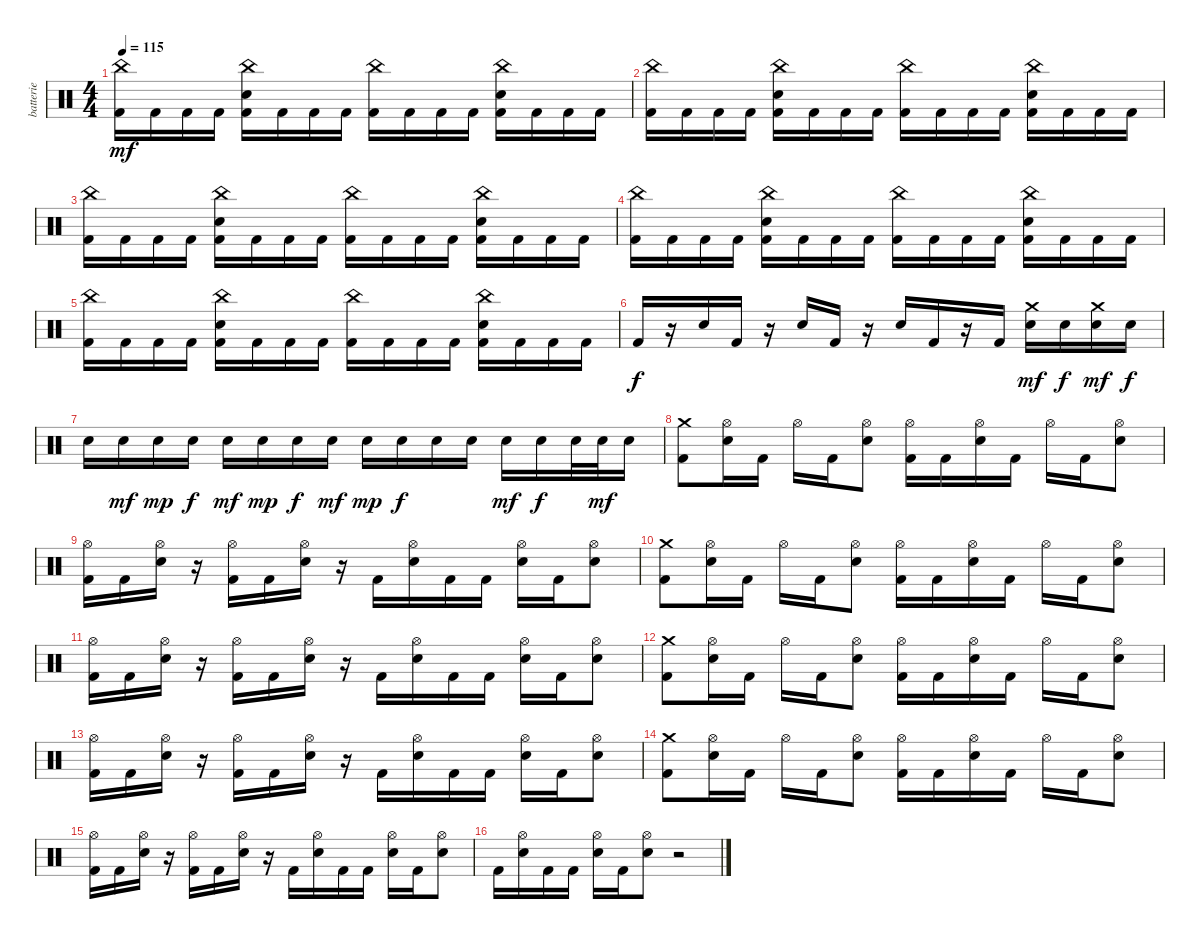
\track ("batterie" "batterie") {instrument percussion}
\staff {score}
\articulation defaults
\ts (4 4)
\tempo 115
\clef neutral
\ks c
("China (hit)" "Kick (hit) 2").16{dy mf} "Kick (hit) 2".16 "Kick (hit) 2".16 "Kick (hit) 2".16 ("China (hit)" "Electric Snare (hit)" "Kick (hit) 2").16 "Kick (hit) 2".16 "Kick (hit) 2".16 "Kick (hit) 2".16 ("China (hit)" "Kick (hit) 2").16 "Kick (hit) 2".16 "Kick (hit) 2".16 "Kick (hit) 2".16 ("China (hit)" "Electric Snare (hit)" "Kick (hit) 2").16 "Kick (hit) 2".16 "Kick (hit) 2".16 "Kick (hit) 2".16 |
("China (hit)" "Kick (hit) 2").16 "Kick (hit) 2".16 "Kick (hit) 2".16 "Kick (hit) 2".16 ("China (hit)" "Electric Snare (hit)" "Kick (hit) 2").16 "Kick (hit) 2".16 "Kick (hit) 2".16 "Kick (hit) 2".16 ("China (hit)" "Kick (hit) 2").16 "Kick (hit) 2".16 "Kick (hit) 2".16 "Kick (hit) 2".16 ("China (hit)" "Electric Snare (hit)" "Kick (hit) 2").16 "Kick (hit) 2".16 "Kick (hit) 2".16 "Kick (hit) 2".16 |
("China (hit)" "Kick (hit) 2").16 "Kick (hit) 2".16 "Kick (hit) 2".16 "Kick (hit) 2".16 ("China (hit)" "Electric Snare (hit)" "Kick (hit) 2").16 "Kick (hit) 2".16 "Kick (hit) 2".16 "Kick (hit) 2".16 ("China (hit)" "Kick (hit) 2").16 "Kick (hit) 2".16 "Kick (hit) 2".16 "Kick (hit) 2".16 ("China (hit)" "Electric Snare (hit)" "Kick (hit) 2").16 "Kick (hit) 2".16 "Kick (hit) 2".16 "Kick (hit) 2".16 |
("China (hit)" "Kick (hit) 2").16 "Kick (hit) 2".16 "Kick (hit) 2".16 "Kick (hit) 2".16 ("China (hit)" "Electric Snare (hit)" "Kick (hit) 2").16 "Kick (hit) 2".16 "Kick (hit) 2".16 "Kick (hit) 2".16 ("China (hit)" "Kick (hit) 2").16 "Kick (hit) 2".16 "Kick (hit) 2".16 "Kick (hit) 2".16 ("China (hit)" "Electric Snare (hit)" "Kick (hit) 2").16 "Kick (hit) 2".16 "Kick (hit) 2".16 "Kick (hit) 2".16 |
("China (hit)" "Kick (hit) 2").16 "Kick (hit) 2".16 "Kick (hit) 2".16 "Kick (hit) 2".16 ("China (hit)" "Electric Snare (hit)" "Kick (hit) 2").16 "Kick (hit) 2".16 "Kick (hit) 2".16 "Kick (hit) 2".16 ("China (hit)" "Kick (hit) 2").16 "Kick (hit) 2".16 "Kick (hit) 2".16 "Kick (hit) 2".16 ("China (hit)" "Electric Snare (hit)" "Kick (hit) 2").16 "Kick (hit) 2".16 "Kick (hit) 2".16 "Kick (hit) 2".16 |
"Kick (hit) 2".16{dy f} r.16 "Electric Snare (hit)".16 "Kick (hit) 2".16 r.16 "Electric Snare (hit)".16 "Kick (hit) 2".16 r.16 "Electric Snare (hit)".16 "Kick (hit) 2".16 r.16 "Kick (hit) 2".16 ("Crash medium (hit)" "Electric Snare (hit)").16{dy mf} "Electric Snare (hit)".16{dy f} ("Crash medium (hit)" "Electric Snare (hit)").16{dy mf} "Electric Snare (hit)".16{dy f} |
"Electric Snare (hit)".16 "Electric Snare (hit)".16{dy mf} "Electric Snare (hit)".16{dy mp} "Electric Snare (hit)".16{dy f} "Electric Snare (hit)".16{dy mf} "Electric Snare (hit)".16{dy mp} "Electric Snare (hit)".16{dy f} "Electric Snare (hit)".16{dy mf} "Electric Snare (hit)".16{dy mp} "Electric Snare (hit)".16{dy f} "Electric Snare (hit)".16 "Electric Snare (hit)".16 "Electric Snare (hit)".16{dy mf} "Electric Snare (hit)".16{dy f} "Electric Snare (hit)".32 "Electric Snare (hit)".32{dy mf} "Electric Snare (hit)".16 |
("Crash medium (hit)" "Kick (hit) 2").8 ("Hi-Hat (open)" "Electric Snare (hit)").16 "Kick (hit) 2".16 "Hi-Hat (open)".16 "Kick (hit) 2".16 ("Hi-Hat (open)" "Electric Snare (hit)").8 ("Hi-Hat (open)" "Kick (hit) 2").16 "Kick (hit) 2".16 ("Hi-Hat (open)" "Electric Snare (hit)").16 "Kick (hit) 2".16 "Hi-Hat (open)".16 "Kick (hit) 2".16 ("Hi-Hat (open)" "Electric Snare (hit)").8 |
("Hi-Hat (open)" "Kick (hit) 2").16 "Kick (hit) 2".16 ("Hi-Hat (open)" "Electric Snare (hit)").16 r.16 ("Hi-Hat (open)" "Kick (hit) 2").16 "Kick (hit) 2".16 ("Hi-Hat (open)" "Electric Snare (hit)").16 r.16 "Kick (hit) 2".16 ("Hi-Hat (open)" "Electric Snare (hit)").16 "Kick (hit) 2".16 "Kick (hit) 2".16 ("Hi-Hat (open)" "Electric Snare (hit)").16 "Kick (hit) 2".16 ("Hi-Hat (open)" "Electric Snare (hit)").8 |
("Crash medium (hit)" "Kick (hit) 2").8 ("Hi-Hat (open)" "Electric Snare (hit)").16 "Kick (hit) 2".16 "Hi-Hat (open)".16 "Kick (hit) 2".16 ("Hi-Hat (open)" "Electric Snare (hit)").8 ("Hi-Hat (open)" "Kick (hit) 2").16 "Kick (hit) 2".16 ("Hi-Hat (open)" "Electric Snare (hit)").16 "Kick (hit) 2".16 "Hi-Hat (open)".16 "Kick (hit) 2".16 ("Hi-Hat (open)" "Electric Snare (hit)").8 |
("Hi-Hat (open)" "Kick (hit) 2").16 "Kick (hit) 2".16 ("Hi-Hat (open)" "Electric Snare (hit)").16 r.16 ("Hi-Hat (open)" "Kick (hit) 2").16 "Kick (hit) 2".16 ("Hi-Hat (open)" "Electric Snare (hit)").16 r.16 "Kick (hit) 2".16 ("Hi-Hat (open)" "Electric Snare (hit)").16 "Kick (hit) 2".16 "Kick (hit) 2".16 ("Hi-Hat (open)" "Electric Snare (hit)").16 "Kick (hit) 2".16 ("Hi-Hat (open)" "Electric Snare (hit)").8 |
("Crash medium (hit)" "Kick (hit) 2").8 ("Hi-Hat (open)" "Electric Snare (hit)").16 "Kick (hit) 2".16 "Hi-Hat (open)".16 "Kick (hit) 2".16 ("Hi-Hat (open)" "Electric Snare (hit)").8 ("Hi-Hat (open)" "Kick (hit) 2").16 "Kick (hit) 2".16 ("Hi-Hat (open)" "Electric Snare (hit)").16 "Kick (hit) 2".16 "Hi-Hat (open)".16 "Kick (hit) 2".16 ("Hi-Hat (open)" "Electric Snare (hit)").8 |
("Hi-Hat (open)" "Kick (hit) 2").16 "Kick (hit) 2".16 ("Hi-Hat (open)" "Electric Snare (hit)").16 r.16 ("Hi-Hat (open)" "Kick (hit) 2").16 "Kick (hit) 2".16 ("Hi-Hat (open)" "Electric Snare (hit)").16 r.16 "Kick (hit) 2".16 ("Hi-Hat (open)" "Electric Snare (hit)").16 "Kick (hit) 2".16 "Kick (hit) 2".16 ("Hi-Hat (open)" "Electric Snare (hit)").16 "Kick (hit) 2".16 ("Hi-Hat (open)" "Electric Snare (hit)").8 |
("Crash medium (hit)" "Kick (hit) 2").8 ("Hi-Hat (open)" "Electric Snare (hit)").16 "Kick (hit) 2".16 "Hi-Hat (open)".16 "Kick (hit) 2".16 ("Hi-Hat (open)" "Electric Snare (hit)").8 ("Hi-Hat (open)" "Kick (hit) 2").16 "Kick (hit) 2".16 ("Hi-Hat (open)" "Electric Snare (hit)").16 "Kick (hit) 2".16 "Hi-Hat (open)".16 "Kick (hit) 2".16 ("Hi-Hat (open)" "Electric Snare (hit)").8 |
("Hi-Hat (open)" "Kick (hit) 2").16 "Kick (hit) 2".16 ("Hi-Hat (open)" "Electric Snare (hit)").16 r.16 ("Hi-Hat (open)" "Kick (hit) 2").16 "Kick (hit) 2".16 ("Hi-Hat (open)" "Electric Snare (hit)").16 r.16 "Kick (hit) 2".16 ("Hi-Hat (open)" "Electric Snare (hit)").16 "Kick (hit) 2".16 "Kick (hit) 2".16 ("Hi-Hat (open)" "Electric Snare (hit)").16 "Kick (hit) 2".16 ("Hi-Hat (open)" "Electric Snare (hit)").8 |
"Kick (hit) 2".16 ("Hi-Hat (open)" "Electric Snare (hit)").16 "Kick (hit) 2".16 "Kick (hit) 2".16 ("Hi-Hat (open)" "Electric Snare (hit)").16 "Kick (hit) 2".16 ("Hi-Hat (open)" "Electric Snare (hit)").8 r.2
